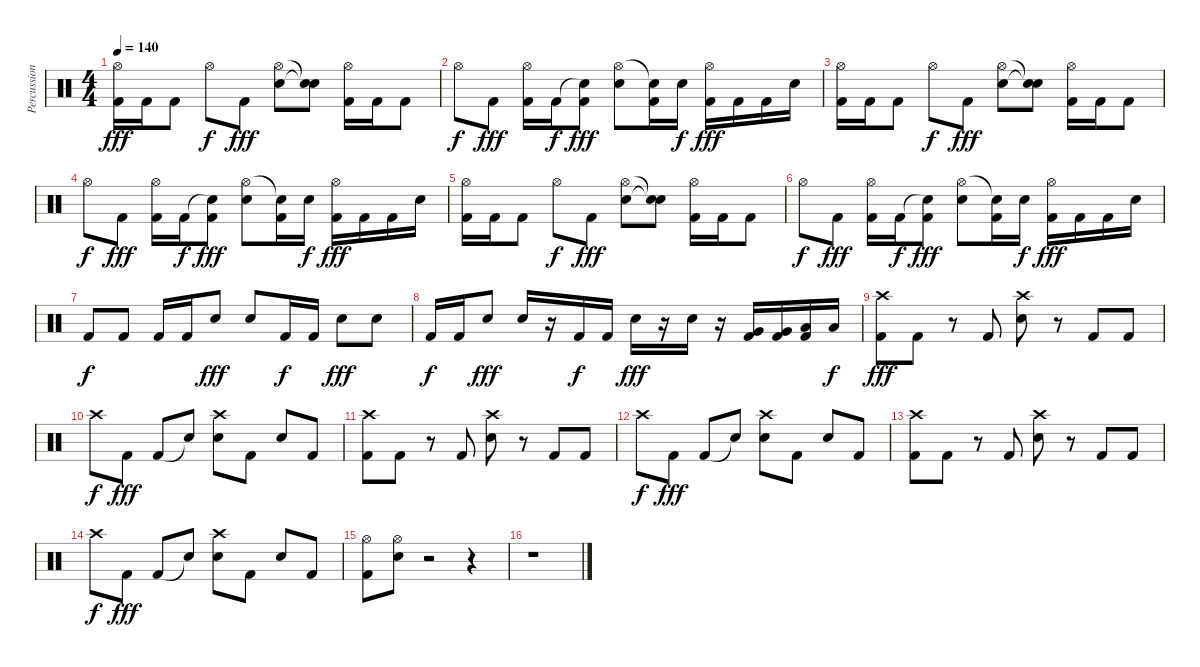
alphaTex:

\track ("Percussion" "Percussion") {instrument percussion}
\staff {score}
\articulation defaults
\ts (4 4)
\tempo 140
\clef neutral
\ks c
("Hi-Hat (open)" "Kick (hit) 2").16{dy fff} "Kick (hit) 2".16 "Kick (hit) 2".8 "Hi-Hat (open)".8{dy f} "Kick (hit) 2".8{dy fff} ("Hi-Hat (open)" "Electric Snare (hit)").8 ("Snare (hit)"{t} "Snare (hit)"{t}).8 ("Hi-Hat (open)" "Kick (hit) 2").16 "Kick (hit) 2".16 "Kick (hit) 2".8 |
"Hi-Hat (open)".8{dy f} "Kick (hit) 2".8{dy fff} ("Hi-Hat (open)" "Kick (hit) 2").16 "Kick (hit) 2".16{dy f} ("Snare (hit)"{t} "Kick (hit) 2").8{dy fff} ("Hi-Hat (open)" "Electric Snare (hit)").8 ("Snare (hit)"{t} "Kick (hit) 2").16 "Electric Snare (hit)".16{dy f} ("Hi-Hat (open)" "Kick (hit) 2").16{dy fff} "Kick (hit) 2".16 "Kick (hit) 2".16 "Electric Snare (hit)".16 |
("Hi-Hat (open)" "Kick (hit) 2").16 "Kick (hit) 2".16 "Kick (hit) 2".8 "Hi-Hat (open)".8{dy f} "Kick (hit) 2".8{dy fff} ("Hi-Hat (open)" "Electric Snare (hit)").8 ("Snare (hit)"{t} "Snare (hit)"{t}).8 ("Hi-Hat (open)" "Kick (hit) 2").16 "Kick (hit) 2".16 "Kick (hit) 2".8 |
"Hi-Hat (open)".8{dy f} "Kick (hit) 2".8{dy fff} ("Hi-Hat (open)" "Kick (hit) 2").16 "Kick (hit) 2".16{dy f} ("Snare (hit)"{t} "Kick (hit) 2").8{dy fff} ("Hi-Hat (open)" "Electric Snare (hit)").8 ("Snare (hit)"{t} "Kick (hit) 2").16 "Electric Snare (hit)".16{dy f} ("Hi-Hat (open)" "Kick (hit) 2").16{dy fff} "Kick (hit) 2".16 "Kick (hit) 2".16 "Electric Snare (hit)".16 |
("Hi-Hat (open)" "Kick (hit) 2").16 "Kick (hit) 2".16 "Kick (hit) 2".8 "Hi-Hat (open)".8{dy f} "Kick (hit) 2".8{dy fff} ("Hi-Hat (open)" "Electric Snare (hit)").8 ("Snare (hit)"{t} "Snare (hit)"{t}).8 ("Hi-Hat (open)" "Kick (hit) 2").16 "Kick (hit) 2".16 "Kick (hit) 2".8 |
"Hi-Hat (open)".8{dy f} "Kick (hit) 2".8{dy fff} ("Hi-Hat (open)" "Kick (hit) 2").16 "Kick (hit) 2".16{dy f} ("Snare (hit)"{t} "Kick (hit) 2").8{dy fff} ("Hi-Hat (open)" "Electric Snare (hit)").8 ("Snare (hit)"{t} "Kick (hit) 2").16 "Electric Snare (hit)".16{dy f} ("Hi-Hat (open)" "Kick (hit) 2").16{dy fff} "Kick (hit) 2".16 "Kick (hit) 2".16 "Electric Snare (hit)".16 |
"Kick (hit) 2".8{dy f} "Kick (hit) 2".8 "Kick (hit) 2".16 "Kick (hit) 2".16 "Electric Snare (hit)".8{dy fff} "Electric Snare (hit)".8 "Kick (hit) 2".16{dy f} "Kick (hit) 2".16 "Electric Snare (hit)".8{dy fff} "Electric Snare (hit)".8 |
"Kick (hit) 2".16{dy f} "Kick (hit) 2".16 "Electric Snare (hit)".8{dy fff} "Electric Snare (hit)".16 r.16 "Kick (hit) 2".16{dy f} "Kick (hit) 2".16 "Electric Snare (hit)".16{dy fff} r.16 "Electric Snare (hit)".16 r.16 ("Kick (hit) 2" "Very Low Tom (hit)").16 ("Kick (hit) 2" "Very Low Tom (hit)").16 ("Kick (hit) 2" "Low Floor Tom (hit)").16 "Low Floor Tom (hit)".16{dy f} |
("Crash high (hit)" "Kick (hit) 2").8{dy fff} "Kick (hit) 2".8 r.8 "Kick (hit) 2".8 ("Crash high (hit)" "Electric Snare (hit)").8 r.8 "Kick (hit) 2".8 "Kick (hit) 2".8 |
"Crash high (hit)".8{dy f} "Kick (hit) 2".8{dy fff} "Kick (hit) 2".8 "Snare (hit)"{t}.8 ("Crash high (hit)" "Electric Snare (hit)").8 "Kick (hit) 2".8 "Electric Snare (hit)".8 "Kick (hit) 2".8 |
("Crash high (hit)" "Kick (hit) 2").8 "Kick (hit) 2".8 r.8 "Kick (hit) 2".8 ("Crash high (hit)" "Electric Snare (hit)").8 r.8 "Kick (hit) 2".8 "Kick (hit) 2".8 |
"Crash high (hit)".8{dy f} "Kick (hit) 2".8{dy fff} "Kick (hit) 2".8 "Snare (hit)"{t}.8 ("Crash high (hit)" "Electric Snare (hit)").8 "Kick (hit) 2".8 "Electric Snare (hit)".8 "Kick (hit) 2".8 |
("Crash high (hit)" "Kick (hit) 2").8 "Kick (hit) 2".8 r.8 "Kick (hit) 2".8 ("Crash high (hit)" "Electric Snare (hit)").8 r.8 "Kick (hit) 2".8 "Kick (hit) 2".8 |
"Crash high (hit)".8{dy f} "Kick (hit) 2".8{dy fff} "Kick (hit) 2".8 "Snare (hit)"{t}.8 ("Crash high (hit)" "Electric Snare (hit)").8 "Kick (hit) 2".8 "Electric Snare (hit)".8 "Kick (hit) 2".8 |
("Hi-Hat (open)" "Kick (hit) 2").8 ("Hi-Hat (open)" "Electric Snare (hit)").8 r.2 r.4 |
r.1
